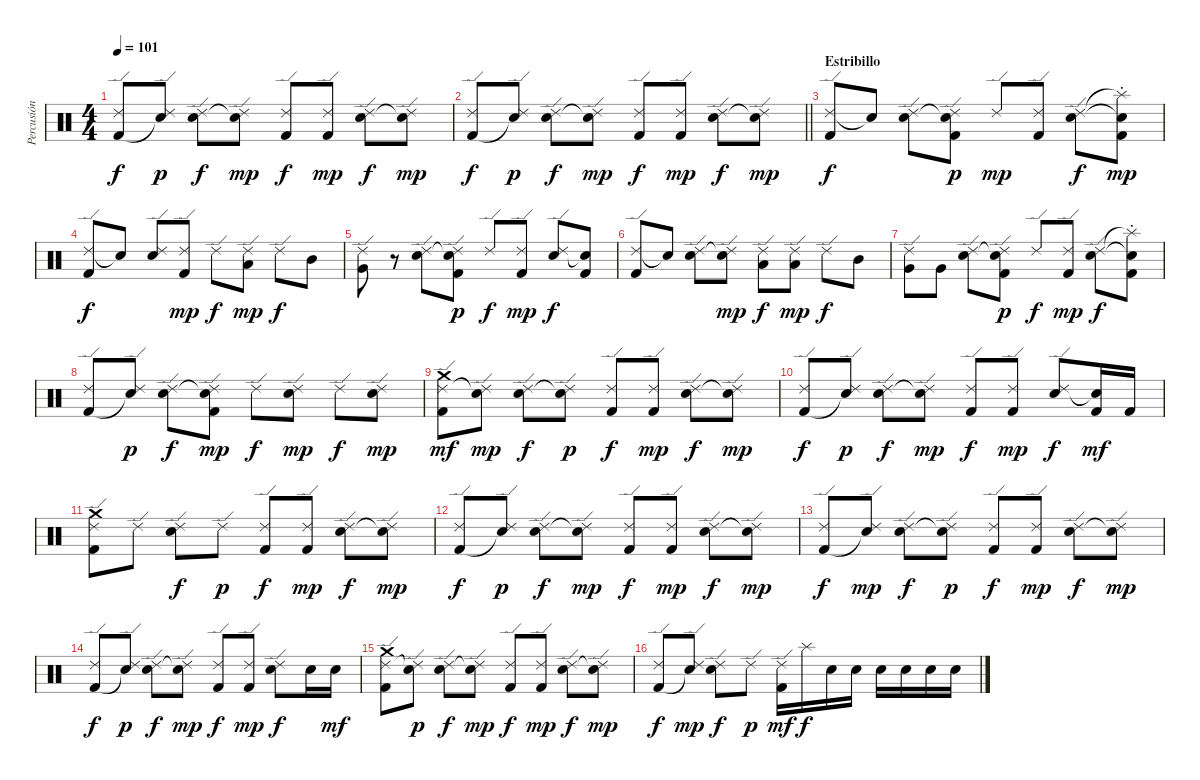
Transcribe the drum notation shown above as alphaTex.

\track ("Percusión" "Percusión") {instrument percussion}
\staff {score}
\articulation defaults
\ts (4 4)
\tempo 101
\clef neutral
\ks c
("Ride (edge) 2" "Kick (hit) 2").8{dy f} ("Ride (edge) 2" "Snare (hit)"{t}).8{dy p} ("Ride (edge) 2" "Snare (hit) 2").8{dy f} ("Ride (edge) 2" "Snare (hit)"{t}).8{dy mp} ("Ride (edge) 2" "Kick (hit) 2").8{dy f} ("Ride (edge) 2" "Kick (hit) 2").8{dy mp} ("Ride (edge) 2" "Snare (hit) 2").8{dy f} ("Ride (edge) 2" "Snare (hit)"{t}).8{dy mp} |
\barLineRight lightlight
("Ride (edge) 2" "Kick (hit) 2").8{dy f} ("Ride (edge) 2" "Snare (hit)"{t}).8{dy p} ("Ride (edge) 2" "Snare (hit) 2").8{dy f} ("Ride (edge) 2" "Snare (hit)"{t}).8{dy mp} ("Ride (edge) 2" "Kick (hit) 2").8{dy f} ("Ride (edge) 2" "Kick (hit) 2").8{dy mp} ("Ride (edge) 2" "Snare (hit) 2").8{dy f} ("Ride (edge) 2" "Snare (hit)"{t}).8{dy mp} |
\section ("" "Estribillo")
("Ride (edge) 2" "Kick (hit) 2").8{dy f} "Snare (hit)"{t}.8 ("Ride (edge) 2" "Snare (hit) 2").8 ("Ride (edge) 2" "Snare (hit)"{t} "Kick (hit) 2").8{dy p} "Ride (edge) 2".8{dy mp} ("Ride (edge) 2" "Kick (hit) 2").8 ("Ride (edge) 2" "Snare (hit) 2").8{dy f} ("Splash (choke)"{t} "Snare (hit)"{t} "Kick (hit) 2").8{dy mp} |
("Ride (edge) 2" "Kick (hit) 2").8{dy f} "Snare (hit)"{t}.8 ("Ride (edge) 2" "Snare (hit) 2").8 ("Ride (edge) 2" "Kick (hit) 2").8{dy mp} "Ride (edge) 2".8{dy f} ("Ride (edge) 2" "Low Tom (hit)").8{dy mp} "Ride (edge) 2".8{dy f} "Mid Tom (hit)".8 |
("Ride (edge) 2" "Very Low Tom (hit)").8 r.8 ("Ride (edge) 2" "Snare (hit) 2").8 ("Ride (edge) 2" "Snare (hit)"{t} "Kick (hit) 2").8{dy p} "Ride (edge) 2".8{dy f} ("Ride (edge) 2" "Kick (hit) 2").8{dy mp} ("Ride (edge) 2" "Snare (hit) 2").8{dy f} ("Snare (hit)"{t} "Kick (hit) 2").8 |
("Ride (edge) 2" "Kick (hit) 2").8 "Snare (hit)"{t}.8 ("Ride (edge) 2" "Snare (hit) 2").8 ("Ride (edge) 2" "Snare (hit)"{t}).8{dy mp} ("Ride (edge) 2" "Low Tom (hit)").8{dy f} ("Ride (edge) 2" "Low Tom (hit)").8{dy mp} "Ride (edge) 2".8{dy f} "Mid Tom (hit)".8 |
("Ride (edge) 2" "Very Low Tom (hit)").8 "Very Low Tom (hit)".8 ("Ride (edge) 2" "Snare (hit) 2").8 ("Ride (edge) 2" "Snare (hit)"{t} "Kick (hit) 2").8{dy p} "Ride (edge) 2".8{dy f} ("Ride (edge) 2" "Kick (hit) 2").8{dy mp} ("Ride (edge) 2" "Snare (hit) 2").8{dy f} ("Splash (choke)"{t} "Snare (hit)"{t} "Kick (hit) 2").8 |
("Ride (edge) 2" "Kick (hit) 2").8 ("Ride (edge) 2" "Snare (hit)"{t}).8{dy p} ("Ride (edge) 2" "Snare (hit) 2").8{dy f} ("Ride (edge) 2" "Snare (hit)"{t} "Kick (hit) 2").8{dy mp} "Ride (edge) 2".8{dy f} ("Ride (edge) 2" "Snare (hit) 2").8{dy mp} "Ride (edge) 2".8{dy f} ("Ride (edge) 2" "Snare (hit) 2").8{dy mp} |
("Crash medium (hit)" "Ride (edge) 2" "Kick (hit) 2").8{dy mf} ("Ride (edge) 2" "Snare (hit)"{t}).8{dy mp} ("Ride (edge) 2" "Snare (hit) 2").8{dy f} ("Ride (edge) 2" "Snare (hit)"{t}).8{dy p} ("Ride (edge) 2" "Kick (hit) 2").8{dy f} ("Ride (edge) 2" "Kick (hit) 2").8{dy mp} ("Ride (edge) 2" "Snare (hit) 2").8{dy f} ("Ride (edge) 2" "Snare (hit)"{t}).8{dy mp} |
("Ride (edge) 2" "Kick (hit) 2").8{dy f} ("Ride (edge) 2" "Snare (hit)"{t}).8{dy p} ("Ride (edge) 2" "Snare (hit) 2").8{dy f} ("Ride (edge) 2" "Snare (hit)"{t}).8{dy mp} ("Ride (edge) 2" "Kick (hit) 2").8{dy f} ("Ride (edge) 2" "Kick (hit) 2").8{dy mp} ("Ride (edge) 2" "Snare (hit) 2").8{dy f} ("Snare (hit)"{t} "Kick (hit) 2").16{dy mf} "Kick (hit) 2".16 |
("Crash medium (hit)" "Ride (edge) 2" "Kick (hit) 2").8 "Ride (edge) 2".8 ("Ride (edge) 2" "Snare (hit) 2").8{dy f} "Ride (edge) 2".8{dy p} ("Ride (edge) 2" "Kick (hit) 2").8{dy f} ("Ride (edge) 2" "Kick (hit) 2").8{dy mp} ("Ride (edge) 2" "Snare (hit) 2").8{dy f} ("Ride (edge) 2" "Snare (hit)"{t}).8{dy mp} |
("Ride (edge) 2" "Kick (hit) 2").8{dy f} ("Ride (edge) 2" "Snare (hit)"{t}).8{dy p} ("Ride (edge) 2" "Snare (hit) 2").8{dy f} ("Ride (edge) 2" "Snare (hit)"{t}).8{dy mp} ("Ride (edge) 2" "Kick (hit) 2").8{dy f} ("Ride (edge) 2" "Kick (hit) 2").8{dy mp} ("Ride (edge) 2" "Snare (hit) 2").8{dy f} ("Ride (edge) 2" "Snare (hit)"{t}).8{dy mp} |
("Ride (edge) 2" "Kick (hit) 2").8{dy f} ("Ride (edge) 2" "Snare (hit)"{t}).8{dy mp} ("Ride (edge) 2" "Snare (hit) 2").8{dy f} ("Ride (edge) 2" "Snare (hit)"{t}).8{dy p} ("Ride (edge) 2" "Kick (hit) 2").8{dy f} ("Ride (edge) 2" "Kick (hit) 2").8{dy mp} ("Ride (edge) 2" "Snare (hit) 2").8{dy f} ("Ride (edge) 2" "Snare (hit)"{t}).8{dy mp} |
("Ride (edge) 2" "Kick (hit) 2").8{dy f} ("Ride (edge) 2" "Snare (hit)"{t}).8{dy p} ("Ride (edge) 2" "Snare (hit) 2").8{dy f} ("Ride (edge) 2" "Snare (hit)"{t}).8{dy mp} ("Ride (edge) 2" "Kick (hit) 2").8{dy f} ("Ride (edge) 2" "Kick (hit) 2").8{dy mp} ("Ride (edge) 2" "Snare (hit) 2").8{dy f} "Snare (hit) 2".16 "Snare (hit) 2".16{dy mf} |
("Crash medium (hit)" "Ride (edge) 2" "Kick (hit) 2").8 ("Ride (edge) 2" "Snare (hit)"{t}).8{dy p} ("Ride (edge) 2" "Snare (hit) 2").8{dy f} ("Ride (edge) 2" "Snare (hit)"{t}).8{dy mp} ("Ride (edge) 2" "Kick (hit) 2").8{dy f} ("Ride (edge) 2" "Kick (hit) 2").8{dy mp} ("Ride (edge) 2" "Snare (hit) 2").8{dy f} ("Ride (edge) 2" "Snare (hit)"{t}).8{dy mp} |
("Ride (edge) 2" "Kick (hit) 2").8{dy f} ("Ride (edge) 2" "Snare (hit)"{t}).8{dy mp} ("Ride (edge) 2" "Snare (hit) 2").8{dy f} "Ride (edge) 2".8{dy p} ("Ride (edge) 2" "Kick (hit) 2").16{dy mf} "Splash (hit)".16{dy f} "Electric Snare (hit)".16 "Electric Snare (hit)".16 "Electric Snare (hit)".16 "Electric Snare (hit)".16 "Electric Snare (hit)".16 "Electric Snare (hit)".16
